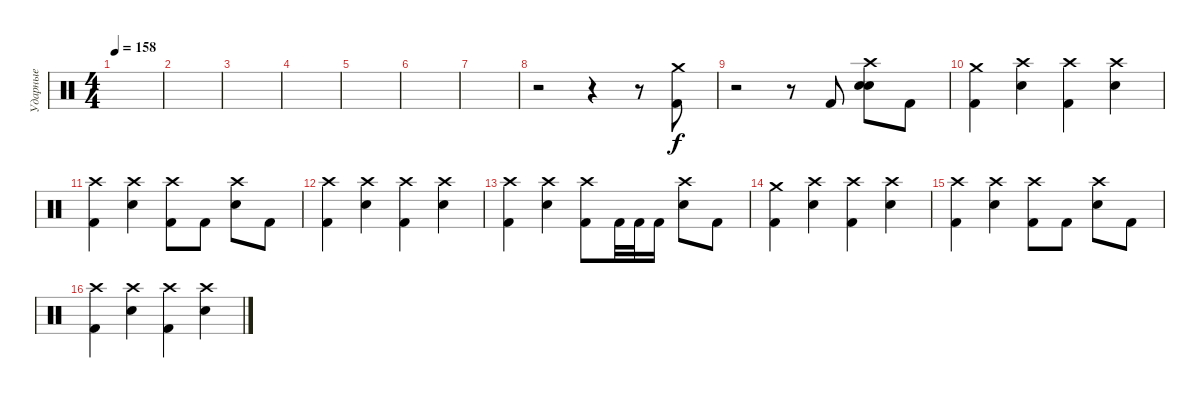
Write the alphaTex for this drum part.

\track ("Ударные" "Ударные") {instrument percussion}
\staff {score}
\articulation defaults
\ts (4 4)
\tempo 158
\clef neutral
\ks c
|
|
|
|
|
|
|
r.2 r.4 r.8 ("Crash medium (hit)" "Kick (hit) 2").8 |
r.2 r.8 "Kick (hit) 2".8 ("Crash high (hit)" "Snare (hit) 2" "Snare (hit) 2").8 "Kick (hit) 2".8 |
("Crash medium (hit)" "Kick (hit) 2").4 ("Crash high (hit)" "Snare (hit) 2").4 ("Crash high (hit)" "Kick (hit) 2").4 ("Crash high (hit)" "Snare (hit) 2").4 |
("Crash high (hit)" "Kick (hit) 2").4 ("Crash high (hit)" "Snare (hit) 2").4 ("Crash high (hit)" "Kick (hit) 2").8 "Kick (hit) 2".8 ("Crash high (hit)" "Snare (hit) 2").8 "Kick (hit) 2".8 |
("Crash high (hit)" "Kick (hit) 2").4 ("Crash high (hit)" "Snare (hit) 2").4 ("Crash high (hit)" "Kick (hit) 2").4 ("Crash high (hit)" "Snare (hit) 2").4 |
("Crash high (hit)" "Kick (hit) 2").4 ("Crash high (hit)" "Snare (hit) 2").4 ("Crash high (hit)" "Kick (hit) 2").8 "Kick (hit) 2".32 "Kick (hit) 2".32 "Kick (hit) 2".16 ("Crash high (hit)" "Snare (hit) 2").8 "Kick (hit) 2".8 |
("Crash medium (hit)" "Kick (hit) 2").4 ("Crash high (hit)" "Snare (hit) 2").4 ("Crash high (hit)" "Kick (hit) 2").4 ("Crash high (hit)" "Snare (hit) 2").4 |
("Crash high (hit)" "Kick (hit) 2").4 ("Crash high (hit)" "Snare (hit) 2").4 ("Crash high (hit)" "Kick (hit) 2").8 "Kick (hit) 2".8 ("Crash high (hit)" "Snare (hit) 2").8 "Kick (hit) 2".8 |
("Crash high (hit)" "Kick (hit) 2").4 ("Crash high (hit)" "Snare (hit) 2").4 ("Crash high (hit)" "Kick (hit) 2").4 ("Crash high (hit)" "Snare (hit) 2").4
